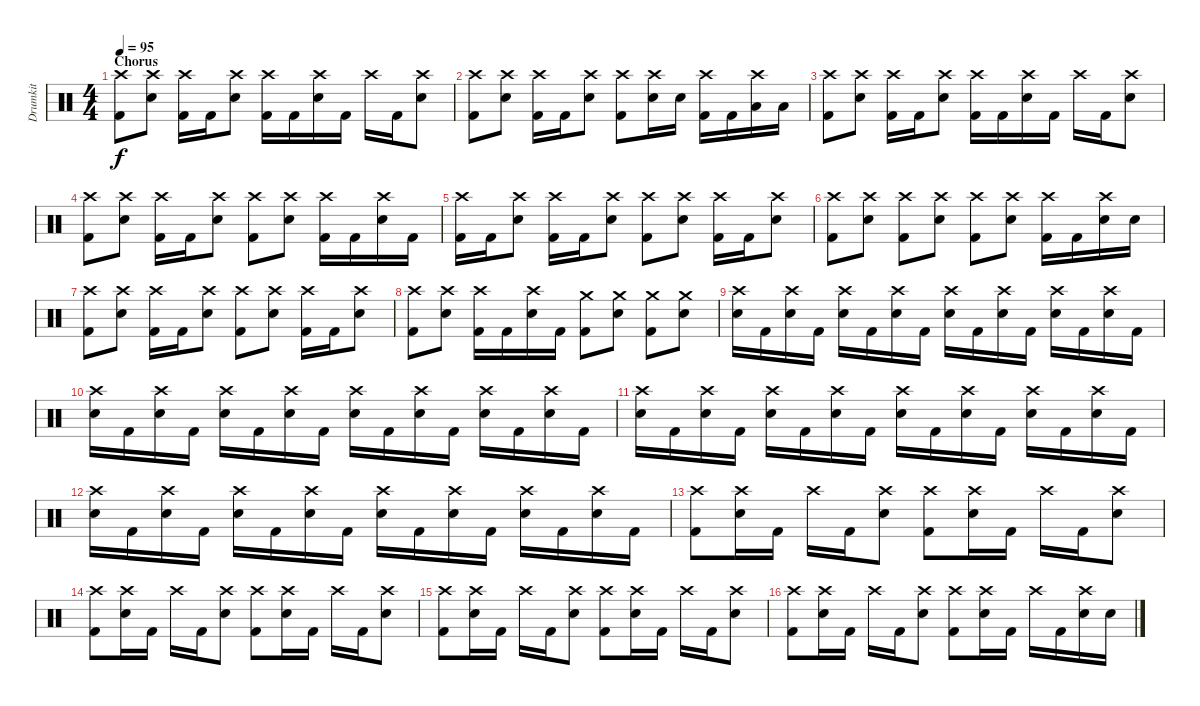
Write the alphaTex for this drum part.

\track ("Drumkit" "Drumkit") {instrument percussion}
\staff {score}
\articulation defaults
\ts (4 4)
\section ("" "Chorus")
\tempo 95
\clef neutral
\ks c
("Crash high (hit)" "Kick (hit) 2").8{dy f} ("Crash high (hit)" "Snare (hit) 2").8 ("Crash high (hit)" "Kick (hit) 2").16 "Kick (hit) 2".16 ("Crash high (hit)" "Snare (hit) 2").8 ("Crash high (hit)" "Kick (hit) 2").16 "Kick (hit) 2".16 ("Crash high (hit)" "Snare (hit) 2").16 "Kick (hit) 2".16 "Crash high (hit)".16 "Kick (hit) 2".16 ("Crash high (hit)" "Snare (hit) 2").8 |
("Crash high (hit)" "Kick (hit) 2").8 ("Crash high (hit)" "Snare (hit) 2").8 ("Crash high (hit)" "Kick (hit) 2").16 "Kick (hit) 2".16 ("Crash high (hit)" "Snare (hit) 2").8 ("Crash high (hit)" "Kick (hit) 2").8 ("Crash high (hit)" "Snare (hit) 2").16 "Snare (hit) 2".16 ("Crash high (hit)" "Kick (hit) 2").16 "Kick (hit) 2".16 ("Crash high (hit)" "Low Tom (hit)").16 "Low Tom (hit)".16 |
("Crash high (hit)" "Kick (hit) 2").8 ("Crash high (hit)" "Snare (hit) 2").8 ("Crash high (hit)" "Kick (hit) 2").16 "Kick (hit) 2".16 ("Crash high (hit)" "Snare (hit) 2").8 ("Crash high (hit)" "Kick (hit) 2").16 "Kick (hit) 2".16 ("Crash high (hit)" "Snare (hit) 2").16 "Kick (hit) 2".16 "Crash high (hit)".16 "Kick (hit) 2".16 ("Crash high (hit)" "Snare (hit) 2").8 |
("Crash high (hit)" "Kick (hit) 2").8 ("Crash high (hit)" "Snare (hit) 2").8 ("Crash high (hit)" "Kick (hit) 2").16 "Kick (hit) 2".16 ("Crash high (hit)" "Snare (hit) 2").8 ("Crash high (hit)" "Kick (hit) 2").8 ("Crash high (hit)" "Snare (hit) 2").8 ("Crash high (hit)" "Kick (hit) 2").16 "Kick (hit) 2".16 ("Crash high (hit)" "Snare (hit) 2").16 "Kick (hit) 2".16 |
("Crash high (hit)" "Kick (hit) 2").16 "Kick (hit) 2".16 ("Crash high (hit)" "Snare (hit) 2").8 ("Crash high (hit)" "Kick (hit) 2").16 "Kick (hit) 2".16 ("Crash high (hit)" "Snare (hit) 2").8 ("Crash high (hit)" "Kick (hit) 2").8 ("Crash high (hit)" "Snare (hit) 2").8 ("Crash high (hit)" "Kick (hit) 2").16 "Kick (hit) 2".16 ("Crash high (hit)" "Snare (hit) 2").8 |
("Crash high (hit)" "Kick (hit) 2").8 ("Crash high (hit)" "Snare (hit) 2").8 ("Crash high (hit)" "Kick (hit) 2").8 ("Crash high (hit)" "Snare (hit) 2").8 ("Crash high (hit)" "Kick (hit) 2").8 ("Crash high (hit)" "Snare (hit) 2").8 ("Crash high (hit)" "Kick (hit) 2").16 "Kick (hit) 2".16 ("Crash high (hit)" "Snare (hit) 2").16 "Snare (hit) 2".16 |
("Crash high (hit)" "Kick (hit) 2").8 ("Crash high (hit)" "Snare (hit) 2").8 ("Crash high (hit)" "Kick (hit) 2").16 "Kick (hit) 2".16 ("Crash high (hit)" "Snare (hit) 2").8 ("Crash high (hit)" "Kick (hit) 2").8 ("Crash high (hit)" "Snare (hit) 2").8 ("Crash high (hit)" "Kick (hit) 2").16 "Kick (hit) 2".16 ("Crash high (hit)" "Snare (hit) 2").8 |
("Crash high (hit)" "Kick (hit) 2").8 ("Crash high (hit)" "Snare (hit) 2").8 ("Crash high (hit)" "Kick (hit) 2").16 "Kick (hit) 2".16 ("Crash high (hit)" "Snare (hit) 2").16 "Kick (hit) 2".16 ("Crash medium (hit)" "Kick (hit) 2").8 ("Crash medium (hit)" "Snare (hit) 2").8 ("Crash medium (hit)" "Kick (hit) 2").8 ("Crash medium (hit)" "Snare (hit) 2").8 |
("Crash high (hit)" "Snare (hit) 2").16 "Kick (hit) 2".16 ("Crash high (hit)" "Snare (hit) 2").16 "Kick (hit) 2".16 ("Crash high (hit)" "Snare (hit) 2").16 "Kick (hit) 2".16 ("Crash high (hit)" "Snare (hit) 2").16 "Kick (hit) 2".16 ("Crash high (hit)" "Snare (hit) 2").16 "Kick (hit) 2".16 ("Crash high (hit)" "Snare (hit) 2").16 "Kick (hit) 2".16 ("Crash high (hit)" "Snare (hit) 2").16 "Kick (hit) 2".16 ("Crash high (hit)" "Snare (hit) 2").16 "Kick (hit) 2".16 |
("Crash high (hit)" "Snare (hit) 2").16 "Kick (hit) 2".16 ("Crash high (hit)" "Snare (hit) 2").16 "Kick (hit) 2".16 ("Crash high (hit)" "Snare (hit) 2").16 "Kick (hit) 2".16 ("Crash high (hit)" "Snare (hit) 2").16 "Kick (hit) 2".16 ("Crash high (hit)" "Snare (hit) 2").16 "Kick (hit) 2".16 ("Crash high (hit)" "Snare (hit) 2").16 "Kick (hit) 2".16 ("Crash high (hit)" "Snare (hit) 2").16 "Kick (hit) 2".16 ("Crash high (hit)" "Snare (hit) 2").16 "Kick (hit) 2".16 |
("Crash high (hit)" "Snare (hit) 2").16 "Kick (hit) 2".16 ("Crash high (hit)" "Snare (hit) 2").16 "Kick (hit) 2".16 ("Crash high (hit)" "Snare (hit) 2").16 "Kick (hit) 2".16 ("Crash high (hit)" "Snare (hit) 2").16 "Kick (hit) 2".16 ("Crash high (hit)" "Snare (hit) 2").16 "Kick (hit) 2".16 ("Crash high (hit)" "Snare (hit) 2").16 "Kick (hit) 2".16 ("Crash high (hit)" "Snare (hit) 2").16 "Kick (hit) 2".16 ("Crash high (hit)" "Snare (hit) 2").16 "Kick (hit) 2".16 |
("Crash high (hit)" "Snare (hit) 2").16 "Kick (hit) 2".16 ("Crash high (hit)" "Snare (hit) 2").16 "Kick (hit) 2".16 ("Crash high (hit)" "Snare (hit) 2").16 "Kick (hit) 2".16 ("Crash high (hit)" "Snare (hit) 2").16 "Kick (hit) 2".16 ("Crash high (hit)" "Snare (hit) 2").16 "Kick (hit) 2".16 ("Crash high (hit)" "Snare (hit) 2").16 "Kick (hit) 2".16 ("Crash high (hit)" "Snare (hit) 2").16 "Kick (hit) 2".16 ("Crash high (hit)" "Snare (hit) 2").16 "Kick (hit) 2".16 |
("Crash high (hit)" "Kick (hit) 2").8 ("Crash high (hit)" "Snare (hit) 2").16 "Kick (hit) 2".16 "Crash high (hit)".16 "Kick (hit) 2".16 ("Crash high (hit)" "Snare (hit) 2").8 ("Crash high (hit)" "Kick (hit) 2").8 ("Crash high (hit)" "Snare (hit) 2").16 "Kick (hit) 2".16 "Crash high (hit)".16 "Kick (hit) 2".16 ("Crash high (hit)" "Snare (hit) 2").8 |
("Crash high (hit)" "Kick (hit) 2").8 ("Crash high (hit)" "Snare (hit) 2").16 "Kick (hit) 2".16 "Crash high (hit)".16 "Kick (hit) 2".16 ("Crash high (hit)" "Snare (hit) 2").8 ("Crash high (hit)" "Kick (hit) 2").8 ("Crash high (hit)" "Snare (hit) 2").16 "Kick (hit) 2".16 "Crash high (hit)".16 "Kick (hit) 2".16 ("Crash high (hit)" "Snare (hit) 2").8 |
("Crash high (hit)" "Kick (hit) 2").8 ("Crash high (hit)" "Snare (hit) 2").16 "Kick (hit) 2".16 "Crash high (hit)".16 "Kick (hit) 2".16 ("Crash high (hit)" "Snare (hit) 2").8 ("Crash high (hit)" "Kick (hit) 2").8 ("Crash high (hit)" "Snare (hit) 2").16 "Kick (hit) 2".16 "Crash high (hit)".16 "Kick (hit) 2".16 ("Crash high (hit)" "Snare (hit) 2").8 |
("Crash high (hit)" "Kick (hit) 2").8 ("Crash high (hit)" "Snare (hit) 2").16 "Kick (hit) 2".16 "Crash high (hit)".16 "Kick (hit) 2".16 ("Crash high (hit)" "Snare (hit) 2").8 ("Crash high (hit)" "Kick (hit) 2").8 ("Crash high (hit)" "Snare (hit) 2").16 "Kick (hit) 2".16 "Crash high (hit)".16 "Kick (hit) 2".16 ("Crash high (hit)" "Snare (hit) 2").16 "Snare (hit) 2".16
